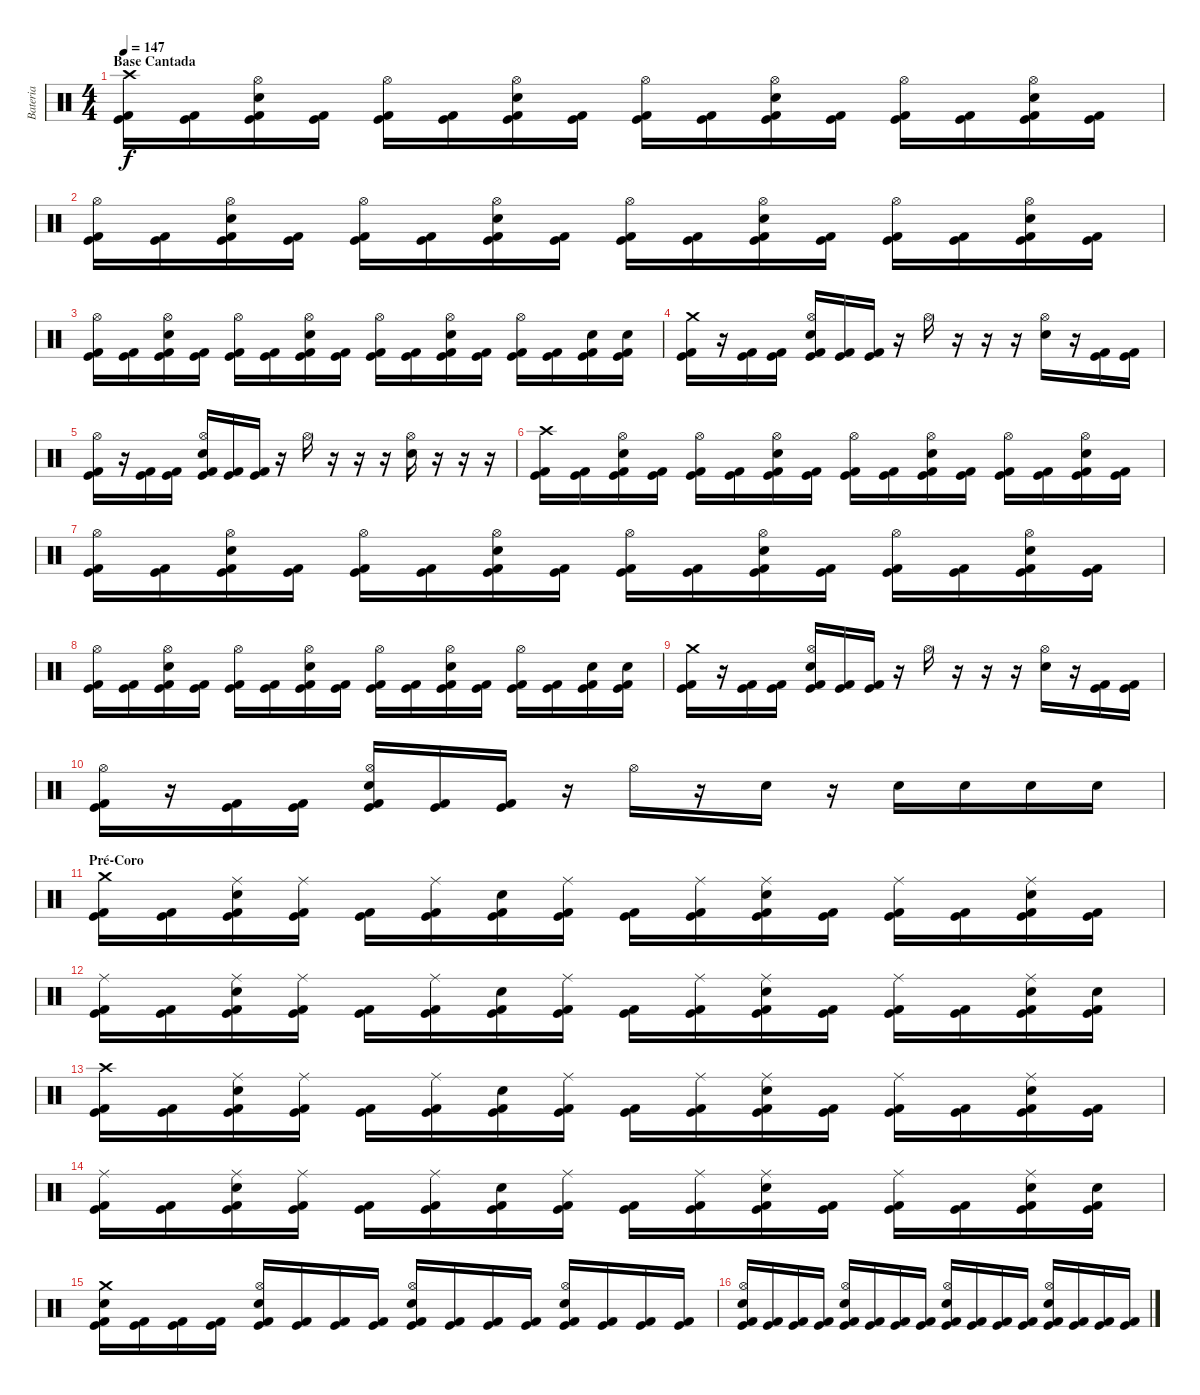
\track ("Bateria" "Bateria") {instrument percussion}
\staff {score}
\articulation defaults
\ts (4 4)
\section ("" "Base Cantada")
\tempo 147
\clef neutral
\ks c
("Crash high (hit)" "Kick (hit)" "Kick (hit) 2").16{dy f} ("Kick (hit)" "Kick (hit) 2").16 ("Hi-Hat (open)" "Electric Snare (hit)" "Kick (hit)" "Kick (hit) 2").16 ("Kick (hit)" "Kick (hit) 2").16 ("Hi-Hat (open)" "Kick (hit)" "Kick (hit) 2").16 ("Kick (hit)" "Kick (hit) 2").16 ("Hi-Hat (open)" "Electric Snare (hit)" "Kick (hit)" "Kick (hit) 2").16 ("Kick (hit)" "Kick (hit) 2").16 ("Hi-Hat (open)" "Kick (hit)" "Kick (hit) 2").16 ("Kick (hit)" "Kick (hit) 2").16 ("Hi-Hat (open)" "Electric Snare (hit)" "Kick (hit)" "Kick (hit) 2").16 ("Kick (hit)" "Kick (hit) 2").16 ("Hi-Hat (open)" "Kick (hit)" "Kick (hit) 2").16 ("Kick (hit)" "Kick (hit) 2").16 ("Hi-Hat (open)" "Electric Snare (hit)" "Kick (hit)" "Kick (hit) 2").16 ("Kick (hit)" "Kick (hit) 2").16 |
("Hi-Hat (open)" "Kick (hit)" "Kick (hit) 2").16 ("Kick (hit)" "Kick (hit) 2").16 ("Hi-Hat (open)" "Electric Snare (hit)" "Kick (hit)" "Kick (hit) 2").16 ("Kick (hit)" "Kick (hit) 2").16 ("Hi-Hat (open)" "Kick (hit)" "Kick (hit) 2").16 ("Kick (hit)" "Kick (hit) 2").16 ("Hi-Hat (open)" "Electric Snare (hit)" "Kick (hit)" "Kick (hit) 2").16 ("Kick (hit)" "Kick (hit) 2").16 ("Hi-Hat (open)" "Kick (hit)" "Kick (hit) 2").16 ("Kick (hit)" "Kick (hit) 2").16 ("Hi-Hat (open)" "Electric Snare (hit)" "Kick (hit)" "Kick (hit) 2").16 ("Kick (hit)" "Kick (hit) 2").16 ("Hi-Hat (open)" "Kick (hit)" "Kick (hit) 2").16 ("Kick (hit)" "Kick (hit) 2").16 ("Hi-Hat (open)" "Electric Snare (hit)" "Kick (hit)" "Kick (hit) 2").16 ("Kick (hit)" "Kick (hit) 2").16 |
("Hi-Hat (open)" "Kick (hit)" "Kick (hit) 2").16 ("Kick (hit)" "Kick (hit) 2").16 ("Hi-Hat (open)" "Electric Snare (hit)" "Kick (hit)" "Kick (hit) 2").16 ("Kick (hit)" "Kick (hit) 2").16 ("Hi-Hat (open)" "Kick (hit)" "Kick (hit) 2").16 ("Kick (hit)" "Kick (hit) 2").16 ("Hi-Hat (open)" "Electric Snare (hit)" "Kick (hit)" "Kick (hit) 2").16 ("Kick (hit)" "Kick (hit) 2").16 ("Hi-Hat (open)" "Kick (hit)" "Kick (hit) 2").16 ("Kick (hit)" "Kick (hit) 2").16 ("Hi-Hat (open)" "Electric Snare (hit)" "Kick (hit)" "Kick (hit) 2").16 ("Kick (hit)" "Kick (hit) 2").16 ("Hi-Hat (open)" "Kick (hit)" "Kick (hit) 2").16 ("Kick (hit)" "Kick (hit) 2").16 ("Electric Snare (hit)" "Kick (hit)" "Kick (hit) 2").16 ("Electric Snare (hit)" "Kick (hit)" "Kick (hit) 2").16 |
("Crash medium (hit)" "Kick (hit)" "Kick (hit) 2").16 r.16 ("Kick (hit)" "Kick (hit) 2").16 ("Kick (hit)" "Kick (hit) 2").16 ("Hi-Hat (open)" "Electric Snare (hit)" "Kick (hit)" "Kick (hit) 2").16 ("Kick (hit)" "Kick (hit) 2").16 ("Kick (hit)" "Kick (hit) 2").16 r.16 "Hi-Hat (open)".16 r.16 r.16 r.16 ("Hi-Hat (open)" "Electric Snare (hit)").16 r.16 ("Kick (hit)" "Kick (hit) 2").16 ("Kick (hit)" "Kick (hit) 2").16 |
("Hi-Hat (open)" "Kick (hit)" "Kick (hit) 2").16 r.16 ("Kick (hit)" "Kick (hit) 2").16 ("Kick (hit)" "Kick (hit) 2").16 ("Hi-Hat (open)" "Electric Snare (hit)" "Kick (hit)" "Kick (hit) 2").16 ("Kick (hit)" "Kick (hit) 2").16 ("Kick (hit)" "Kick (hit) 2").16 r.16 "Hi-Hat (open)".16 r.16 r.16 r.16 ("Hi-Hat (open)" "Electric Snare (hit)").16 r.16 r.16 r.16 |
("Crash high (hit)" "Kick (hit)" "Kick (hit) 2").16 ("Kick (hit)" "Kick (hit) 2").16 ("Hi-Hat (open)" "Electric Snare (hit)" "Kick (hit)" "Kick (hit) 2").16 ("Kick (hit)" "Kick (hit) 2").16 ("Hi-Hat (open)" "Kick (hit)" "Kick (hit) 2").16 ("Kick (hit)" "Kick (hit) 2").16 ("Hi-Hat (open)" "Electric Snare (hit)" "Kick (hit)" "Kick (hit) 2").16 ("Kick (hit)" "Kick (hit) 2").16 ("Hi-Hat (open)" "Kick (hit)" "Kick (hit) 2").16 ("Kick (hit)" "Kick (hit) 2").16 ("Hi-Hat (open)" "Electric Snare (hit)" "Kick (hit)" "Kick (hit) 2").16 ("Kick (hit)" "Kick (hit) 2").16 ("Hi-Hat (open)" "Kick (hit)" "Kick (hit) 2").16 ("Kick (hit)" "Kick (hit) 2").16 ("Hi-Hat (open)" "Electric Snare (hit)" "Kick (hit)" "Kick (hit) 2").16 ("Kick (hit)" "Kick (hit) 2").16 |
("Hi-Hat (open)" "Kick (hit)" "Kick (hit) 2").16 ("Kick (hit)" "Kick (hit) 2").16 ("Hi-Hat (open)" "Electric Snare (hit)" "Kick (hit)" "Kick (hit) 2").16 ("Kick (hit)" "Kick (hit) 2").16 ("Hi-Hat (open)" "Kick (hit)" "Kick (hit) 2").16 ("Kick (hit)" "Kick (hit) 2").16 ("Hi-Hat (open)" "Electric Snare (hit)" "Kick (hit)" "Kick (hit) 2").16 ("Kick (hit)" "Kick (hit) 2").16 ("Hi-Hat (open)" "Kick (hit)" "Kick (hit) 2").16 ("Kick (hit)" "Kick (hit) 2").16 ("Hi-Hat (open)" "Electric Snare (hit)" "Kick (hit)" "Kick (hit) 2").16 ("Kick (hit)" "Kick (hit) 2").16 ("Hi-Hat (open)" "Kick (hit)" "Kick (hit) 2").16 ("Kick (hit)" "Kick (hit) 2").16 ("Hi-Hat (open)" "Electric Snare (hit)" "Kick (hit)" "Kick (hit) 2").16 ("Kick (hit)" "Kick (hit) 2").16 |
("Hi-Hat (open)" "Kick (hit)" "Kick (hit) 2").16 ("Kick (hit)" "Kick (hit) 2").16 ("Hi-Hat (open)" "Electric Snare (hit)" "Kick (hit)" "Kick (hit) 2").16 ("Kick (hit)" "Kick (hit) 2").16 ("Hi-Hat (open)" "Kick (hit)" "Kick (hit) 2").16 ("Kick (hit)" "Kick (hit) 2").16 ("Hi-Hat (open)" "Electric Snare (hit)" "Kick (hit)" "Kick (hit) 2").16 ("Kick (hit)" "Kick (hit) 2").16 ("Hi-Hat (open)" "Kick (hit)" "Kick (hit) 2").16 ("Kick (hit)" "Kick (hit) 2").16 ("Hi-Hat (open)" "Electric Snare (hit)" "Kick (hit)" "Kick (hit) 2").16 ("Kick (hit)" "Kick (hit) 2").16 ("Hi-Hat (open)" "Kick (hit)" "Kick (hit) 2").16 ("Kick (hit)" "Kick (hit) 2").16 ("Electric Snare (hit)" "Kick (hit)" "Kick (hit) 2").16 ("Electric Snare (hit)" "Kick (hit)" "Kick (hit) 2").16 |
("Crash medium (hit)" "Kick (hit)" "Kick (hit) 2").16 r.16 ("Kick (hit)" "Kick (hit) 2").16 ("Kick (hit)" "Kick (hit) 2").16 ("Hi-Hat (open)" "Electric Snare (hit)" "Kick (hit)" "Kick (hit) 2").16 ("Kick (hit)" "Kick (hit) 2").16 ("Kick (hit)" "Kick (hit) 2").16 r.16 "Hi-Hat (open)".16 r.16 r.16 r.16 ("Hi-Hat (open)" "Electric Snare (hit)").16 r.16 ("Kick (hit)" "Kick (hit) 2").16 ("Kick (hit)" "Kick (hit) 2").16 |
("Hi-Hat (open)" "Kick (hit)" "Kick (hit) 2").16 r.16 ("Kick (hit)" "Kick (hit) 2").16 ("Kick (hit)" "Kick (hit) 2").16 ("Hi-Hat (open)" "Electric Snare (hit)" "Kick (hit)" "Kick (hit) 2").16 ("Kick (hit)" "Kick (hit) 2").16 ("Kick (hit)" "Kick (hit) 2").16 r.16 "Hi-Hat (open)".16 r.16 "Electric Snare (hit)".16 r.16 "Electric Snare (hit)".16 "Electric Snare (hit)".16 "Electric Snare (hit)".16 "Electric Snare (hit)".16 |
\section ("" "Pré-Coro")
("Crash medium (hit)" "Kick (hit)" "Kick (hit) 2").16 ("Kick (hit)" "Kick (hit) 2").16 ("Ride (middle)" "Electric Snare (hit)" "Kick (hit)" "Kick (hit) 2").16 ("Ride (middle)" "Kick (hit)" "Kick (hit) 2").16 ("Kick (hit)" "Kick (hit) 2").16 ("Ride (middle)" "Kick (hit)" "Kick (hit) 2").16 ("Electric Snare (hit)" "Kick (hit)" "Kick (hit) 2").16 ("Ride (middle)" "Kick (hit)" "Kick (hit) 2").16 ("Kick (hit)" "Kick (hit) 2").16 ("Ride (middle)" "Kick (hit)" "Kick (hit) 2").16 ("Ride (middle)" "Electric Snare (hit)" "Kick (hit)" "Kick (hit) 2").16 ("Kick (hit)" "Kick (hit) 2").16 ("Ride (middle)" "Kick (hit)" "Kick (hit) 2").16 ("Kick (hit)" "Kick (hit) 2").16 ("Ride (middle)" "Electric Snare (hit)" "Kick (hit)" "Kick (hit) 2").16 ("Kick (hit)" "Kick (hit) 2").16 |
("Ride (middle)" "Kick (hit)" "Kick (hit) 2").16 ("Kick (hit)" "Kick (hit) 2").16 ("Ride (middle)" "Electric Snare (hit)" "Kick (hit)" "Kick (hit) 2").16 ("Ride (middle)" "Kick (hit)" "Kick (hit) 2").16 ("Kick (hit)" "Kick (hit) 2").16 ("Ride (middle)" "Kick (hit)" "Kick (hit) 2").16 ("Electric Snare (hit)" "Kick (hit)" "Kick (hit) 2").16 ("Ride (middle)" "Kick (hit)" "Kick (hit) 2").16 ("Kick (hit)" "Kick (hit) 2").16 ("Ride (middle)" "Kick (hit)" "Kick (hit) 2").16 ("Ride (middle)" "Electric Snare (hit)" "Kick (hit)" "Kick (hit) 2").16 ("Kick (hit)" "Kick (hit) 2").16 ("Ride (middle)" "Kick (hit)" "Kick (hit) 2").16 ("Kick (hit)" "Kick (hit) 2").16 ("Ride (middle)" "Electric Snare (hit)" "Kick (hit)" "Kick (hit) 2").16 ("Electric Snare (hit)" "Kick (hit)" "Kick (hit) 2").16 |
("Crash high (hit)" "Kick (hit)" "Kick (hit) 2").16 ("Kick (hit)" "Kick (hit) 2").16 ("Ride (middle)" "Electric Snare (hit)" "Kick (hit)" "Kick (hit) 2").16 ("Ride (middle)" "Kick (hit)" "Kick (hit) 2").16 ("Kick (hit)" "Kick (hit) 2").16 ("Ride (middle)" "Kick (hit)" "Kick (hit) 2").16 ("Electric Snare (hit)" "Kick (hit)" "Kick (hit) 2").16 ("Ride (middle)" "Kick (hit)" "Kick (hit) 2").16 ("Kick (hit)" "Kick (hit) 2").16 ("Ride (middle)" "Kick (hit)" "Kick (hit) 2").16 ("Ride (middle)" "Electric Snare (hit)" "Kick (hit)" "Kick (hit) 2").16 ("Kick (hit)" "Kick (hit) 2").16 ("Ride (middle)" "Kick (hit)" "Kick (hit) 2").16 ("Kick (hit)" "Kick (hit) 2").16 ("Ride (middle)" "Electric Snare (hit)" "Kick (hit)" "Kick (hit) 2").16 ("Kick (hit)" "Kick (hit) 2").16 |
("Ride (middle)" "Kick (hit)" "Kick (hit) 2").16 ("Kick (hit)" "Kick (hit) 2").16 ("Ride (middle)" "Electric Snare (hit)" "Kick (hit)" "Kick (hit) 2").16 ("Ride (middle)" "Kick (hit)" "Kick (hit) 2").16 ("Kick (hit)" "Kick (hit) 2").16 ("Ride (middle)" "Kick (hit)" "Kick (hit) 2").16 ("Electric Snare (hit)" "Kick (hit)" "Kick (hit) 2").16 ("Ride (middle)" "Kick (hit)" "Kick (hit) 2").16 ("Kick (hit)" "Kick (hit) 2").16 ("Ride (middle)" "Kick (hit)" "Kick (hit) 2").16 ("Ride (middle)" "Electric Snare (hit)" "Kick (hit)" "Kick (hit) 2").16 ("Kick (hit)" "Kick (hit) 2").16 ("Ride (middle)" "Kick (hit)" "Kick (hit) 2").16 ("Kick (hit)" "Kick (hit) 2").16 ("Ride (middle)" "Electric Snare (hit)" "Kick (hit)" "Kick (hit) 2").16 ("Electric Snare (hit)" "Kick (hit)" "Kick (hit) 2").16 |
("Crash medium (hit)" "Electric Snare (hit)" "Kick (hit)" "Kick (hit) 2").16 ("Kick (hit)" "Kick (hit) 2").16 ("Kick (hit)" "Kick (hit) 2").16 ("Kick (hit)" "Kick (hit) 2").16 ("Hi-Hat (open)" "Electric Snare (hit)" "Kick (hit)" "Kick (hit) 2").16 ("Kick (hit)" "Kick (hit) 2").16 ("Kick (hit)" "Kick (hit) 2").16 ("Kick (hit)" "Kick (hit) 2").16 ("Hi-Hat (open)" "Electric Snare (hit)" "Kick (hit)" "Kick (hit) 2").16 ("Kick (hit)" "Kick (hit) 2").16 ("Kick (hit)" "Kick (hit) 2").16 ("Kick (hit)" "Kick (hit) 2").16 ("Hi-Hat (open)" "Electric Snare (hit)" "Kick (hit)" "Kick (hit) 2").16 ("Kick (hit)" "Kick (hit) 2").16 ("Kick (hit)" "Kick (hit) 2").16 ("Kick (hit)" "Kick (hit) 2").16 |
("Hi-Hat (open)" "Electric Snare (hit)" "Kick (hit)" "Kick (hit) 2").16 ("Kick (hit)" "Kick (hit) 2").16 ("Kick (hit)" "Kick (hit) 2").16 ("Kick (hit)" "Kick (hit) 2").16 ("Hi-Hat (open)" "Electric Snare (hit)" "Kick (hit)" "Kick (hit) 2").16 ("Kick (hit)" "Kick (hit) 2").16 ("Kick (hit)" "Kick (hit) 2").16 ("Kick (hit)" "Kick (hit) 2").16 ("Hi-Hat (open)" "Electric Snare (hit)" "Kick (hit)" "Kick (hit) 2").16 ("Kick (hit)" "Kick (hit) 2").16 ("Kick (hit)" "Kick (hit) 2").16 ("Kick (hit)" "Kick (hit) 2").16 ("Hi-Hat (open)" "Electric Snare (hit)" "Kick (hit)" "Kick (hit) 2").16 ("Kick (hit)" "Kick (hit) 2").16 ("Kick (hit)" "Kick (hit) 2").16 ("Kick (hit)" "Kick (hit) 2").16
